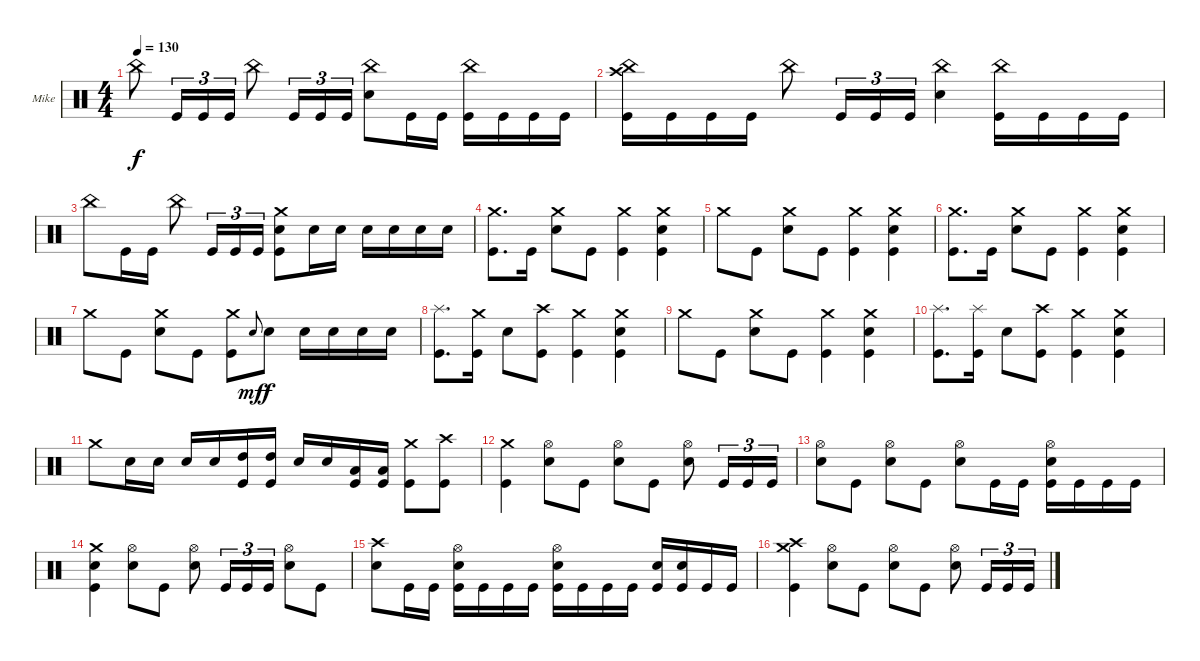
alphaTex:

\defaultSystemsLayout 4
\bracketExtendMode groupsimilarinstruments
\firstSystemTrackNameOrientation horizontal
\otherSystemsTrackNameOrientation horizontal
\track ("Mike Portnoy" "Mike") {instrument percussion}
\staff {score}
\articulation defaults
\ts (4 4)
\tempo 130
\clef neutral
\ks c "China (hit)".8{dy f} "Kick (hit)".16{tu (3 2)} "Kick (hit)".16{tu (3 2)} "Kick (hit)".16{tu (3 2)} "China (hit)".8 "Kick (hit)".16{tu (3 2)} "Kick (hit)".16{tu (3 2)} "Kick (hit)".16{tu (3 2)}
("China (hit)" "Snare (hit) 2").8 "Kick (hit)".16 "Kick (hit)".16 ("China (hit)" "Kick (hit)").16 "Kick (hit)".16 "Kick (hit)".16 "Kick (hit)".16 |
("Crash high (hit)" "China (hit)" "Kick (hit)").16 "Kick (hit)".16 "Kick (hit)".16 "Kick (hit)".16 "China (hit)".8 "Kick (hit)".16{tu (3 2)} "Kick (hit)".16{tu (3 2)} "Kick (hit)".16{tu (3 2)} ("China (hit)" "Snare (hit) 2").4 ("China (hit)" "Kick (hit)").16 "Kick (hit)".16 "Kick (hit)".16 "Kick (hit)".16 |
"China (hit)".8 "Kick (hit)".16 "Kick (hit)".16 "China (hit)".8 "Kick (hit)".16{tu (3 2)} "Kick (hit)".16{tu (3 2)} "Kick (hit)".16{tu (3 2)} ("Crash medium (hit)" "Snare (hit) 2" "Kick (hit)").8 "Snare (hit) 2".16 "Snare (hit) 2".16 "Snare (hit) 2".16 "Snare (hit) 2".16 "Snare (hit) 2".16 "Snare (hit) 2".16 |
("Crash medium (hit)" "Kick (hit)").8{d} "Kick (hit)".16 ("Crash medium (hit)" "Snare (hit) 2").8 "Kick (hit)".8 ("Crash medium (hit)" "Kick (hit)").4 ("Crash medium (hit)" "Snare (hit) 2" "Kick (hit)").4 |
"Crash medium (hit)".8 "Kick (hit)".8 ("Crash medium (hit)" "Snare (hit) 2").8 "Kick (hit)".8 ("Crash medium (hit)" "Kick (hit)").4 ("Crash medium (hit)" "Snare (hit) 2" "Kick (hit)").4 |
("Crash medium (hit)" "Kick (hit)").8{d} "Kick (hit)".16 ("Crash medium (hit)" "Snare (hit) 2").8 "Kick (hit)".8 ("Crash medium (hit)" "Kick (hit)").4 ("Crash medium (hit)" "Snare (hit) 2" "Kick (hit)").4 |
"Crash medium (hit)".8 "Kick (hit)".8 ("Crash medium (hit)" "Snare (hit) 2").8 "Kick (hit)".8 ("Crash medium (hit)" "Kick (hit)").8 "Snare (hit) 2".8{gr onbeat dy mf} "Snare (hit) 2".8{dy f} "Snare (hit) 2".16 "Snare (hit) 2".16 "Snare (hit) 2".16 "Snare (hit) 2".16 |
("Splash (hit)" "Kick (hit)").8{d} ("Crash medium (hit)" "Kick (hit)").16 "Snare (hit) 2".8 ("Crash high (hit)" "Kick (hit)").8 ("Crash medium (hit)" "Kick (hit)").4 ("Crash medium (hit)" "Snare (hit) 2" "Kick (hit)").4 |
"Crash medium (hit)".8 "Kick (hit)".8 ("Crash medium (hit)" "Snare (hit) 2").8 "Kick (hit)".8 ("Crash medium (hit)" "Kick (hit)").4 ("Crash medium (hit)" "Snare (hit) 2" "Kick (hit)").4 |
("Splash (hit)" "Kick (hit)").8{d} ("Splash (hit)" "Kick (hit)").16 "Snare (hit) 2".8 ("Crash high (hit)" "Kick (hit)").8 ("Crash medium (hit)" "Kick (hit)").4 ("Crash medium (hit)" "Snare (hit) 2" "Kick (hit)").4 |
"Crash medium (hit)".8 "Snare (hit) 2".16 "Snare (hit) 2".16 "Snare (hit) 2".16 "Snare (hit) 2".16 ("High Tom (hit)" "Kick (hit)").16 ("High Tom (hit)" "Kick (hit)").16 "Snare (hit) 2".16 "Snare (hit) 2".16 ("Low Tom (hit)" "Kick (hit)").16 ("Low Tom (hit)" "Kick (hit)").16 ("Crash medium (hit)" "Kick (hit)").8 ("Crash high (hit)" "Kick (hit)").8 |
("Crash medium (hit)" "Kick (hit)").4 ("Hi-Hat (open)" "Snare (hit) 2").8 "Kick (hit)".8 ("Hi-Hat (open)" "Snare (hit) 2").8 "Kick (hit)".8 ("Hi-Hat (open)" "Snare (hit) 2").8 "Kick (hit)".16{tu (3 2)} "Kick (hit)".16{tu (3 2)} "Kick (hit)".16{tu (3 2)} |
("Hi-Hat (open)" "Snare (hit) 2").8 "Kick (hit)".8 ("Hi-Hat (open)" "Snare (hit) 2").8 "Kick (hit)".8 ("Hi-Hat (open)" "Snare (hit) 2").8 "Kick (hit)".16 "Kick (hit)".16 ("Hi-Hat (open)" "Snare (hit) 2" "Kick (hit)").16 "Kick (hit)".16 "Kick (hit)".16 "Kick (hit)".16 |
("Crash medium (hit)" "Snare (hit) 2" "Kick (hit)").4 ("Hi-Hat (open)" "Snare (hit) 2").8 "Kick (hit)".8 ("Hi-Hat (open)" "Snare (hit) 2").8 "Kick (hit)".16{tu (3 2)} "Kick (hit)".16{tu (3 2)} "Kick (hit)".16{tu (3 2)} ("Hi-Hat (open)" "Snare (hit) 2").8 "Kick (hit)".8 |
("Crash high (hit)" "Snare (hit) 2").8 "Kick (hit)".16 "Kick (hit)".16 ("Hi-Hat (open)" "Snare (hit) 2" "Kick (hit)").16 "Kick (hit)".16 "Kick (hit)".16 "Kick (hit)".16 ("Hi-Hat (open)" "Snare (hit) 2" "Kick (hit)").16 "Kick (hit)".16 "Kick (hit)".16 "Kick (hit)".16 ("Snare (hit) 2" "Kick (hit)").16 ("Snare (hit) 2" "Kick (hit)").16 "Kick (hit)".16 "Kick (hit)".16 |
("Crash medium (hit)" "Crash high (hit)" "Kick (hit)").4 ("Hi-Hat (open)" "Snare (hit) 2").8 "Kick (hit)".8 ("Hi-Hat (open)" "Snare (hit) 2").8 "Kick (hit)".8 ("Hi-Hat (open)" "Snare (hit) 2").8 "Kick (hit)".16{tu (3 2)} "Kick (hit)".16{tu (3 2)} "Kick (hit)".16{tu (3 2)}
